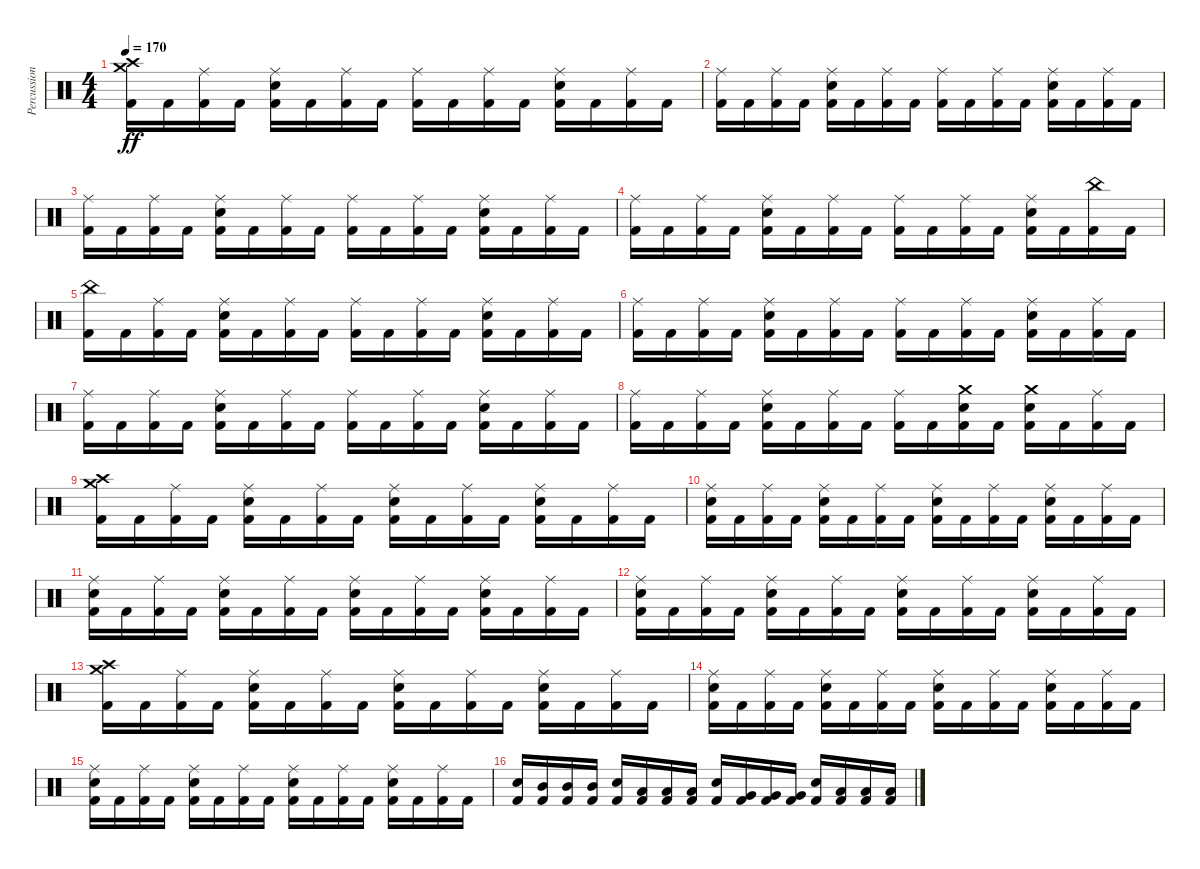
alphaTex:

\track ("Percussion" "Percussion") {instrument percussion}
\staff {score}
\articulation defaults
\ts (4 4)
\tempo 170
\clef neutral
\ks c
("Kick (hit) 2" "Crash medium (hit)" "Crash high (hit)").16{dy ff} "Kick (hit) 2".16 ("Kick (hit) 2" "Ride (middle)").16 "Kick (hit) 2".16 ("Kick (hit) 2" "Electric Snare (hit)" "Ride (middle)").16 "Kick (hit) 2".16 ("Kick (hit) 2" "Ride (middle)").16 "Kick (hit) 2".16 ("Kick (hit) 2" "Ride (middle)").16 "Kick (hit) 2".16 ("Kick (hit) 2" "Ride (middle)").16 "Kick (hit) 2".16 ("Kick (hit) 2" "Electric Snare (hit)" "Ride (middle)").16 "Kick (hit) 2".16 ("Kick (hit) 2" "Ride (middle)").16 "Kick (hit) 2".16 |
("Kick (hit) 2" "Ride (middle)").16 "Kick (hit) 2".16 ("Kick (hit) 2" "Ride (middle)").16 "Kick (hit) 2".16 ("Kick (hit) 2" "Electric Snare (hit)" "Ride (middle)").16 "Kick (hit) 2".16 ("Kick (hit) 2" "Ride (middle)").16 "Kick (hit) 2".16 ("Kick (hit) 2" "Ride (middle)").16 "Kick (hit) 2".16 ("Kick (hit) 2" "Ride (middle)").16 "Kick (hit) 2".16 ("Kick (hit) 2" "Electric Snare (hit)" "Ride (middle)").16 "Kick (hit) 2".16 ("Kick (hit) 2" "Ride (middle)").16 "Kick (hit) 2".16 |
("Kick (hit) 2" "Ride (middle)").16 "Kick (hit) 2".16 ("Kick (hit) 2" "Ride (middle)").16 "Kick (hit) 2".16 ("Kick (hit) 2" "Electric Snare (hit)" "Ride (middle)").16 "Kick (hit) 2".16 ("Kick (hit) 2" "Ride (middle)").16 "Kick (hit) 2".16 ("Kick (hit) 2" "Ride (middle)").16 "Kick (hit) 2".16 ("Kick (hit) 2" "Ride (middle)").16 "Kick (hit) 2".16 ("Kick (hit) 2" "Electric Snare (hit)" "Ride (middle)").16 "Kick (hit) 2".16 ("Kick (hit) 2" "Ride (middle)").16 "Kick (hit) 2".16 |
("Kick (hit) 2" "Ride (middle)").16 "Kick (hit) 2".16 ("Kick (hit) 2" "Ride (middle)").16 "Kick (hit) 2".16 ("Kick (hit) 2" "Electric Snare (hit)" "Ride (middle)").16 "Kick (hit) 2".16 ("Kick (hit) 2" "Ride (middle)").16 "Kick (hit) 2".16 ("Kick (hit) 2" "Ride (middle)").16 "Kick (hit) 2".16 ("Kick (hit) 2" "Ride (middle)").16 "Kick (hit) 2".16 ("Kick (hit) 2" "Electric Snare (hit)" "Ride (middle)").16 "Kick (hit) 2".16 ("Kick (hit) 2" "China (hit)").16 "Kick (hit) 2".16 |
("Kick (hit) 2" "China (hit)").16 "Kick (hit) 2".16 ("Kick (hit) 2" "Ride (middle)").16 "Kick (hit) 2".16 ("Kick (hit) 2" "Electric Snare (hit)" "Ride (middle)").16 "Kick (hit) 2".16 ("Kick (hit) 2" "Ride (middle)").16 "Kick (hit) 2".16 ("Kick (hit) 2" "Ride (middle)").16 "Kick (hit) 2".16 ("Kick (hit) 2" "Ride (middle)").16 "Kick (hit) 2".16 ("Kick (hit) 2" "Electric Snare (hit)" "Ride (middle)").16 "Kick (hit) 2".16 ("Kick (hit) 2" "Ride (middle)").16 "Kick (hit) 2".16 |
("Kick (hit) 2" "Ride (middle)").16 "Kick (hit) 2".16 ("Kick (hit) 2" "Ride (middle)").16 "Kick (hit) 2".16 ("Kick (hit) 2" "Electric Snare (hit)" "Ride (middle)").16 "Kick (hit) 2".16 ("Kick (hit) 2" "Ride (middle)").16 "Kick (hit) 2".16 ("Kick (hit) 2" "Ride (middle)").16 "Kick (hit) 2".16 ("Kick (hit) 2" "Ride (middle)").16 "Kick (hit) 2".16 ("Kick (hit) 2" "Electric Snare (hit)" "Ride (middle)").16 "Kick (hit) 2".16 ("Kick (hit) 2" "Ride (middle)").16 "Kick (hit) 2".16 |
("Kick (hit) 2" "Ride (middle)").16 "Kick (hit) 2".16 ("Kick (hit) 2" "Ride (middle)").16 "Kick (hit) 2".16 ("Kick (hit) 2" "Electric Snare (hit)" "Ride (middle)").16 "Kick (hit) 2".16 ("Kick (hit) 2" "Ride (middle)").16 "Kick (hit) 2".16 ("Kick (hit) 2" "Ride (middle)").16 "Kick (hit) 2".16 ("Kick (hit) 2" "Ride (middle)").16 "Kick (hit) 2".16 ("Kick (hit) 2" "Electric Snare (hit)" "Ride (middle)").16 "Kick (hit) 2".16 ("Kick (hit) 2" "Ride (middle)").16 "Kick (hit) 2".16 |
("Kick (hit) 2" "Ride (middle)").16 "Kick (hit) 2".16 ("Kick (hit) 2" "Ride (middle)").16 "Kick (hit) 2".16 ("Kick (hit) 2" "Electric Snare (hit)" "Ride (middle)").16 "Kick (hit) 2".16 ("Kick (hit) 2" "Ride (middle)").16 "Kick (hit) 2".16 ("Kick (hit) 2" "Ride (middle)").16 "Kick (hit) 2".16 ("Kick (hit) 2" "Electric Snare (hit)" "Crash medium (hit)").16 "Kick (hit) 2".16 ("Kick (hit) 2" "Electric Snare (hit)" "Crash medium (hit)").16 "Kick (hit) 2".16 ("Kick (hit) 2" "Ride (middle)").16 "Kick (hit) 2".16 |
("Kick (hit) 2" "Crash medium (hit)" "Crash high (hit)").16 "Kick (hit) 2".16 ("Kick (hit) 2" "Ride (middle)").16 "Kick (hit) 2".16 ("Kick (hit) 2" "Electric Snare (hit)" "Ride (middle)").16 "Kick (hit) 2".16 ("Kick (hit) 2" "Ride (middle)").16 "Kick (hit) 2".16 ("Kick (hit) 2" "Electric Snare (hit)" "Ride (middle)").16 "Kick (hit) 2".16 ("Kick (hit) 2" "Ride (middle)").16 "Kick (hit) 2".16 ("Kick (hit) 2" "Electric Snare (hit)" "Ride (middle)").16 "Kick (hit) 2".16 ("Kick (hit) 2" "Ride (middle)").16 "Kick (hit) 2".16 |
("Kick (hit) 2" "Electric Snare (hit)" "Ride (middle)").16 "Kick (hit) 2".16 ("Kick (hit) 2" "Ride (middle)").16 "Kick (hit) 2".16 ("Kick (hit) 2" "Electric Snare (hit)" "Ride (middle)").16 "Kick (hit) 2".16 ("Kick (hit) 2" "Ride (middle)").16 "Kick (hit) 2".16 ("Kick (hit) 2" "Electric Snare (hit)" "Ride (middle)").16 "Kick (hit) 2".16 ("Kick (hit) 2" "Ride (middle)").16 "Kick (hit) 2".16 ("Kick (hit) 2" "Electric Snare (hit)" "Ride (middle)").16 "Kick (hit) 2".16 ("Kick (hit) 2" "Ride (middle)").16 "Kick (hit) 2".16 |
("Kick (hit) 2" "Electric Snare (hit)" "Ride (middle)").16 "Kick (hit) 2".16 ("Kick (hit) 2" "Ride (middle)").16 "Kick (hit) 2".16 ("Kick (hit) 2" "Electric Snare (hit)" "Ride (middle)").16 "Kick (hit) 2".16 ("Kick (hit) 2" "Ride (middle)").16 "Kick (hit) 2".16 ("Kick (hit) 2" "Electric Snare (hit)" "Ride (middle)").16 "Kick (hit) 2".16 ("Kick (hit) 2" "Ride (middle)").16 "Kick (hit) 2".16 ("Kick (hit) 2" "Electric Snare (hit)" "Ride (middle)").16 "Kick (hit) 2".16 ("Kick (hit) 2" "Ride (middle)").16 "Kick (hit) 2".16 |
("Kick (hit) 2" "Electric Snare (hit)" "Ride (middle)").16 "Kick (hit) 2".16 ("Kick (hit) 2" "Ride (middle)").16 "Kick (hit) 2".16 ("Kick (hit) 2" "Electric Snare (hit)" "Ride (middle)").16 "Kick (hit) 2".16 ("Kick (hit) 2" "Ride (middle)").16 "Kick (hit) 2".16 ("Kick (hit) 2" "Electric Snare (hit)" "Ride (middle)").16 "Kick (hit) 2".16 ("Kick (hit) 2" "Ride (middle)").16 "Kick (hit) 2".16 ("Kick (hit) 2" "Electric Snare (hit)" "Ride (middle)").16 "Kick (hit) 2".16 ("Kick (hit) 2" "Ride (middle)").16 "Kick (hit) 2".16 |
("Kick (hit) 2" "Crash medium (hit)" "Crash high (hit)").16 "Kick (hit) 2".16 ("Kick (hit) 2" "Ride (middle)").16 "Kick (hit) 2".16 ("Kick (hit) 2" "Electric Snare (hit)" "Ride (middle)").16 "Kick (hit) 2".16 ("Kick (hit) 2" "Ride (middle)").16 "Kick (hit) 2".16 ("Kick (hit) 2" "Electric Snare (hit)" "Ride (middle)").16 "Kick (hit) 2".16 ("Kick (hit) 2" "Ride (middle)").16 "Kick (hit) 2".16 ("Kick (hit) 2" "Electric Snare (hit)" "Ride (middle)").16 "Kick (hit) 2".16 ("Kick (hit) 2" "Ride (middle)").16 "Kick (hit) 2".16 |
("Kick (hit) 2" "Electric Snare (hit)" "Ride (middle)").16 "Kick (hit) 2".16 ("Kick (hit) 2" "Ride (middle)").16 "Kick (hit) 2".16 ("Kick (hit) 2" "Electric Snare (hit)" "Ride (middle)").16 "Kick (hit) 2".16 ("Kick (hit) 2" "Ride (middle)").16 "Kick (hit) 2".16 ("Kick (hit) 2" "Electric Snare (hit)" "Ride (middle)").16 "Kick (hit) 2".16 ("Kick (hit) 2" "Ride (middle)").16 "Kick (hit) 2".16 ("Kick (hit) 2" "Electric Snare (hit)" "Ride (middle)").16 "Kick (hit) 2".16 ("Kick (hit) 2" "Ride (middle)").16 "Kick (hit) 2".16 |
("Kick (hit) 2" "Electric Snare (hit)" "Ride (middle)").16 "Kick (hit) 2".16 ("Kick (hit) 2" "Ride (middle)").16 "Kick (hit) 2".16 ("Kick (hit) 2" "Electric Snare (hit)" "Ride (middle)").16 "Kick (hit) 2".16 ("Kick (hit) 2" "Ride (middle)").16 "Kick (hit) 2".16 ("Kick (hit) 2" "Electric Snare (hit)" "Ride (middle)").16 "Kick (hit) 2".16 ("Kick (hit) 2" "Ride (middle)").16 "Kick (hit) 2".16 ("Kick (hit) 2" "Electric Snare (hit)" "Ride (middle)").16 "Kick (hit) 2".16 ("Kick (hit) 2" "Ride (middle)").16 "Kick (hit) 2".16 |
("Kick (hit) 2" "Electric Snare (hit)").16 ("Kick (hit) 2" "Mid Tom (hit)").16 ("Kick (hit) 2" "Mid Tom (hit)").16 ("Kick (hit) 2" "Mid Tom (hit)").16 ("Kick (hit) 2" "Electric Snare (hit)").16 ("Kick (hit) 2" "Low Tom (hit)").16 ("Kick (hit) 2" "Low Tom (hit)").16 ("Kick (hit) 2" "Low Tom (hit)").16 ("Kick (hit) 2" "Electric Snare (hit)").16 ("Kick (hit) 2" "Very Low Tom (hit)").16 ("Kick (hit) 2" "Very Low Tom (hit)").16 ("Kick (hit) 2" "Very Low Tom (hit)").16 ("Kick (hit) 2" "Electric Snare (hit)").16 ("Kick (hit) 2" "Low Floor Tom (hit)").16 ("Kick (hit) 2" "Low Floor Tom (hit)").16 ("Kick (hit) 2" "Low Floor Tom (hit)").16
